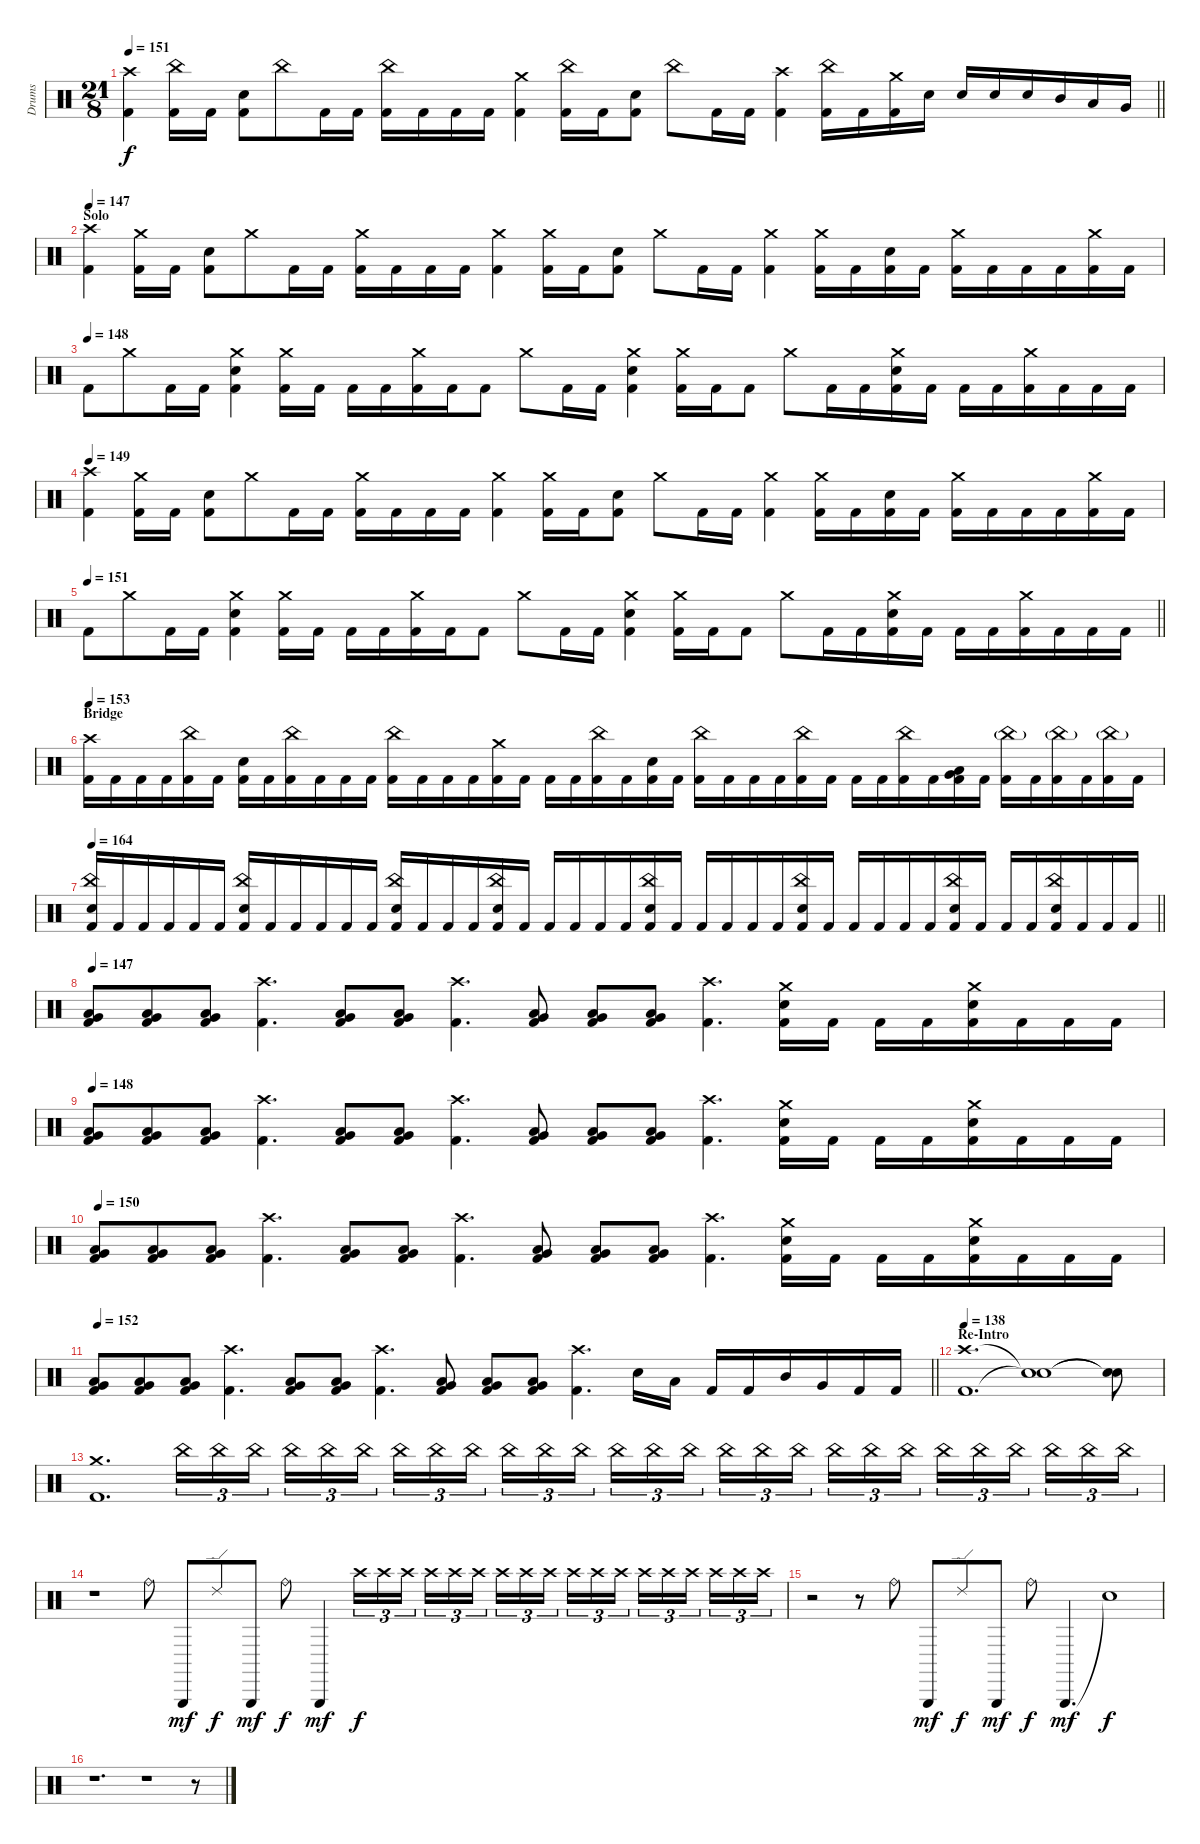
\track ("Drums" "Drums") {instrument percussion}
\staff {score}
\articulation defaults
\ts (21 8)
\tempo 151
\clef neutral
\barLineRight lightlight
\ks c
("Crash high (hit)" "Kick (hit) 2").4{dy f} ("China (hit)" "Kick (hit) 2").16 "Kick (hit) 2".16 ("Snare (hit) 2" "Kick (hit) 2").8 "China (hit)".8 "Kick (hit) 2".16 "Kick (hit) 2".16 ("China (hit)" "Kick (hit) 2").16 "Kick (hit) 2".16 "Kick (hit) 2".16 "Kick (hit) 2".16 ("Crash medium (hit)" "Kick (hit) 2").4 ("China (hit)" "Kick (hit) 2").16 "Kick (hit) 2".16 ("Snare (hit) 2" "Kick (hit) 2").8 "China (hit)".8 "Kick (hit) 2".16 "Kick (hit) 2".16 ("Crash high (hit)" "Kick (hit) 2").4 ("China (hit)" "Kick (hit) 2").16 "Kick (hit) 2".16 ("Crash medium (hit)" "Kick (hit) 2").16 "Snare (hit) 2".16 "Snare (hit) 2".16 "Snare (hit) 2".16 "Snare (hit) 2".16 "Mid Tom (hit)".16 "Low Tom (hit)".16 "Very Low Tom (hit)".16 |
\section ("" "Solo")
\tempo 147
("Crash high (hit)" "Kick (hit) 2").4 ("Crash medium (hit)" "Kick (hit) 2").16 "Kick (hit) 2".16 ("Snare (hit) 2" "Kick (hit) 2").8 "Crash medium (hit)".8 "Kick (hit) 2".16 "Kick (hit) 2".16 ("Crash medium (hit)" "Kick (hit) 2").16 "Kick (hit) 2".16 "Kick (hit) 2".16 "Kick (hit) 2".16 ("Crash medium (hit)" "Kick (hit) 2").4 ("Crash medium (hit)" "Kick (hit) 2").16 "Kick (hit) 2".16 ("Snare (hit) 2" "Kick (hit) 2").8 "Crash medium (hit)".8 "Kick (hit) 2".16 "Kick (hit) 2".16 ("Crash medium (hit)" "Kick (hit) 2").4 ("Crash medium (hit)" "Kick (hit) 2").16 "Kick (hit) 2".16 ("Snare (hit) 2" "Kick (hit) 2").16 "Kick (hit) 2".16 ("Crash medium (hit)" "Kick (hit) 2").16 "Kick (hit) 2".16 "Kick (hit) 2".16 "Kick (hit) 2".16 ("Crash medium (hit)" "Kick (hit) 2").16 "Kick (hit) 2".16 |
\tempo (148)
"Kick (hit) 2".8 "Crash medium (hit)".8 "Kick (hit) 2".16 "Kick (hit) 2".16 ("Crash medium (hit)" "Snare (hit) 2" "Kick (hit) 2").4 ("Crash medium (hit)" "Kick (hit) 2").16 "Kick (hit) 2".16 "Kick (hit) 2".16 "Kick (hit) 2".16 ("Crash medium (hit)" "Kick (hit) 2").16 "Kick (hit) 2".16 "Kick (hit) 2".8 "Crash medium (hit)".8 "Kick (hit) 2".16 "Kick (hit) 2".16 ("Crash medium (hit)" "Snare (hit) 2" "Kick (hit) 2").4 ("Crash medium (hit)" "Kick (hit) 2").16 "Kick (hit) 2".16 "Kick (hit) 2".8 "Crash medium (hit)".8 "Kick (hit) 2".16 "Kick (hit) 2".16 ("Crash medium (hit)" "Snare (hit) 2" "Kick (hit) 2").16 "Kick (hit) 2".16 "Kick (hit) 2".16 "Kick (hit) 2".16 ("Crash medium (hit)" "Kick (hit) 2").16 "Kick (hit) 2".16 "Kick (hit) 2".16 "Kick (hit) 2".16 |
\tempo 149
("Crash high (hit)" "Kick (hit) 2").4 ("Crash medium (hit)" "Kick (hit) 2").16 "Kick (hit) 2".16 ("Snare (hit) 2" "Kick (hit) 2").8 "Crash medium (hit)".8 "Kick (hit) 2".16 "Kick (hit) 2".16 ("Crash medium (hit)" "Kick (hit) 2").16 "Kick (hit) 2".16 "Kick (hit) 2".16 "Kick (hit) 2".16 ("Crash medium (hit)" "Kick (hit) 2").4 ("Crash medium (hit)" "Kick (hit) 2").16 "Kick (hit) 2".16 ("Snare (hit) 2" "Kick (hit) 2").8 "Crash medium (hit)".8 "Kick (hit) 2".16 "Kick (hit) 2".16 ("Crash medium (hit)" "Kick (hit) 2").4 ("Crash medium (hit)" "Kick (hit) 2").16 "Kick (hit) 2".16 ("Snare (hit) 2" "Kick (hit) 2").16 "Kick (hit) 2".16 ("Crash medium (hit)" "Kick (hit) 2").16 "Kick (hit) 2".16 "Kick (hit) 2".16 "Kick (hit) 2".16 ("Crash medium (hit)" "Kick (hit) 2").16 "Kick (hit) 2".16 |
\tempo 151
\barLineRight lightlight "Kick (hit) 2".8 "Crash medium (hit)".8 "Kick (hit) 2".16 "Kick (hit) 2".16
("Crash medium (hit)" "Snare (hit) 2" "Kick (hit) 2").4 ("Crash medium (hit)" "Kick (hit) 2").16 "Kick (hit) 2".16 "Kick (hit) 2".16 "Kick (hit) 2".16 ("Crash medium (hit)" "Kick (hit) 2").16 "Kick (hit) 2".16 "Kick (hit) 2".8 "Crash medium (hit)".8 "Kick (hit) 2".16 "Kick (hit) 2".16 ("Crash medium (hit)" "Snare (hit) 2" "Kick (hit) 2").4 ("Crash medium (hit)" "Kick (hit) 2").16 "Kick (hit) 2".16 "Kick (hit) 2".8 "Crash medium (hit)".8 "Kick (hit) 2".16 "Kick (hit) 2".16 ("Crash medium (hit)" "Snare (hit) 2" "Kick (hit) 2").16 "Kick (hit) 2".16 "Kick (hit) 2".16 "Kick (hit) 2".16 ("Crash medium (hit)" "Kick (hit) 2").16 "Kick (hit) 2".16 "Kick (hit) 2".16 "Kick (hit) 2".16 |
\section ("" "Bridge")
\tempo 153
("Crash high (hit)" "Kick (hit) 2").16 "Kick (hit) 2".16 "Kick (hit) 2".16 "Kick (hit) 2".16 ("China (hit)" "Kick (hit) 2").16 "Kick (hit) 2".16 ("Snare (hit) 2" "Kick (hit) 2").16 "Kick (hit) 2".16 ("China (hit)" "Kick (hit) 2").16 "Kick (hit) 2".16 "Kick (hit) 2".16 "Kick (hit) 2".16 ("China (hit)" "Kick (hit) 2").16 "Kick (hit) 2".16 "Kick (hit) 2".16 "Kick (hit) 2".16 ("Crash medium (hit)" "Kick (hit) 2").16 "Kick (hit) 2".16 "Kick (hit) 2".16 "Kick (hit) 2".16 ("China (hit)" "Kick (hit) 2").16 "Kick (hit) 2".16 ("Snare (hit) 2" "Kick (hit) 2").16 "Kick (hit) 2".16 ("China (hit)" "Kick (hit) 2").16 "Kick (hit) 2".16 "Kick (hit) 2".16 "Kick (hit) 2".16 ("China (hit)" "Kick (hit) 2").16 "Kick (hit) 2".16 "Kick (hit) 2".16 "Kick (hit) 2".16 ("China (hit)" "Kick (hit) 2").16 "Kick (hit) 2".16 ("Low Tom (hit)" "Very Low Tom (hit)" "Kick (hit) 2").16 "Kick (hit) 2".16 ("China (hit)"{g} "Kick (hit) 2").16 "Kick (hit) 2".16 ("China (hit)"{g} "Kick (hit) 2").16 "Kick (hit) 2".16 ("China (hit)"{g} "Kick (hit) 2").16 "Kick (hit) 2".16 |
\tempo 164
\barLineRight lightlight
("China (hit)" "Snare (hit) 2" "Kick (hit) 2").16 "Kick (hit) 2".16 "Kick (hit) 2".16 "Kick (hit) 2".16 "Kick (hit) 2".16 "Kick (hit) 2".16 ("China (hit)" "Snare (hit) 2" "Kick (hit) 2").16 "Kick (hit) 2".16 "Kick (hit) 2".16 "Kick (hit) 2".16 "Kick (hit) 2".16 "Kick (hit) 2".16 ("China (hit)" "Snare (hit) 2" "Kick (hit) 2").16 "Kick (hit) 2".16 "Kick (hit) 2".16 "Kick (hit) 2".16 ("China (hit)" "Snare (hit) 2" "Kick (hit) 2").16 "Kick (hit) 2".16 "Kick (hit) 2".16 "Kick (hit) 2".16 "Kick (hit) 2".16 "Kick (hit) 2".16 ("China (hit)" "Snare (hit) 2" "Kick (hit) 2").16 "Kick (hit) 2".16 "Kick (hit) 2".16 "Kick (hit) 2".16 "Kick (hit) 2".16 "Kick (hit) 2".16 ("China (hit)" "Snare (hit) 2" "Kick (hit) 2").16 "Kick (hit) 2".16 "Kick (hit) 2".16 "Kick (hit) 2".16 "Kick (hit) 2".16 "Kick (hit) 2".16 ("China (hit)" "Snare (hit) 2" "Kick (hit) 2").16 "Kick (hit) 2".16 "Kick (hit) 2".16 "Kick (hit) 2".16 ("China (hit)" "Snare (hit) 2" "Kick (hit) 2").16 "Kick (hit) 2".16 "Kick (hit) 2".16 "Kick (hit) 2".16 |
\section ("" "")
\tempo 147
("Very Low Tom (hit)" "Low Floor Tom (hit)" "Kick (hit) 2").8 ("Very Low Tom (hit)" "Low Floor Tom (hit)" "Kick (hit) 2").8 ("Very Low Tom (hit)" "Low Floor Tom (hit)" "Kick (hit) 2").8 ("Crash high (hit)" "Kick (hit) 2").4{d} ("Very Low Tom (hit)" "Low Floor Tom (hit)" "Kick (hit) 2").8 ("Very Low Tom (hit)" "Low Floor Tom (hit)" "Kick (hit) 2").8 ("Crash high (hit)" "Kick (hit) 2").4{d} ("Very Low Tom (hit)" "Low Floor Tom (hit)" "Kick (hit) 2").8 ("Very Low Tom (hit)" "Low Floor Tom (hit)" "Kick (hit) 2").8 ("Very Low Tom (hit)" "Low Floor Tom (hit)" "Kick (hit) 2").8 ("Crash high (hit)" "Kick (hit) 2").4{d} ("Crash medium (hit)" "Snare (hit) 2" "Kick (hit) 2").16 "Kick (hit) 2".16 "Kick (hit) 2".16 "Kick (hit) 2".16 ("Crash medium (hit)" "Snare (hit) 2" "Kick (hit) 2").16 "Kick (hit) 2".16 "Kick (hit) 2".16 "Kick (hit) 2".16 |
\tempo 148
("Very Low Tom (hit)" "Low Floor Tom (hit)" "Kick (hit) 2").8 ("Very Low Tom (hit)" "Low Floor Tom (hit)" "Kick (hit) 2").8 ("Very Low Tom (hit)" "Low Floor Tom (hit)" "Kick (hit) 2").8 ("Crash high (hit)" "Kick (hit) 2").4{d} ("Very Low Tom (hit)" "Low Floor Tom (hit)" "Kick (hit) 2").8 ("Very Low Tom (hit)" "Low Floor Tom (hit)" "Kick (hit) 2").8 ("Crash high (hit)" "Kick (hit) 2").4{d} ("Very Low Tom (hit)" "Low Floor Tom (hit)" "Kick (hit) 2").8 ("Very Low Tom (hit)" "Low Floor Tom (hit)" "Kick (hit) 2").8 ("Very Low Tom (hit)" "Low Floor Tom (hit)" "Kick (hit) 2").8 ("Crash high (hit)" "Kick (hit) 2").4{d} ("Crash medium (hit)" "Snare (hit) 2" "Kick (hit) 2").16 "Kick (hit) 2".16 "Kick (hit) 2".16 "Kick (hit) 2".16 ("Crash medium (hit)" "Snare (hit) 2" "Kick (hit) 2").16 "Kick (hit) 2".16 "Kick (hit) 2".16 "Kick (hit) 2".16 |
\tempo 150
("Very Low Tom (hit)" "Low Floor Tom (hit)" "Kick (hit) 2").8 ("Very Low Tom (hit)" "Low Floor Tom (hit)" "Kick (hit) 2").8 ("Very Low Tom (hit)" "Low Floor Tom (hit)" "Kick (hit) 2").8 ("Crash high (hit)" "Kick (hit) 2").4{d} ("Very Low Tom (hit)" "Low Floor Tom (hit)" "Kick (hit) 2").8 ("Very Low Tom (hit)" "Low Floor Tom (hit)" "Kick (hit) 2").8 ("Crash high (hit)" "Kick (hit) 2").4{d} ("Very Low Tom (hit)" "Low Floor Tom (hit)" "Kick (hit) 2").8 ("Very Low Tom (hit)" "Low Floor Tom (hit)" "Kick (hit) 2").8 ("Very Low Tom (hit)" "Low Floor Tom (hit)" "Kick (hit) 2").8 ("Crash high (hit)" "Kick (hit) 2").4{d} ("Crash medium (hit)" "Snare (hit) 2" "Kick (hit) 2").16 "Kick (hit) 2".16 "Kick (hit) 2".16 "Kick (hit) 2".16 ("Crash medium (hit)" "Snare (hit) 2" "Kick (hit) 2").16 "Kick (hit) 2".16 "Kick (hit) 2".16 "Kick (hit) 2".16 |
\tempo 152
\barLineRight lightlight
("Very Low Tom (hit)" "Low Floor Tom (hit)" "Kick (hit) 2").8 ("Very Low Tom (hit)" "Low Floor Tom (hit)" "Kick (hit) 2").8 ("Very Low Tom (hit)" "Low Floor Tom (hit)" "Kick (hit) 2").8 ("Crash high (hit)" "Kick (hit) 2").4{d} ("Very Low Tom (hit)" "Low Floor Tom (hit)" "Kick (hit) 2").8 ("Very Low Tom (hit)" "Low Floor Tom (hit)" "Kick (hit) 2").8 ("Crash high (hit)" "Kick (hit) 2").4{d} ("Very Low Tom (hit)" "Low Floor Tom (hit)" "Kick (hit) 2").8 ("Very Low Tom (hit)" "Low Floor Tom (hit)" "Kick (hit) 2").8 ("Very Low Tom (hit)" "Low Floor Tom (hit)" "Kick (hit) 2").8 ("Crash high (hit)" "Kick (hit) 2").4{d} "Snare (hit) 2".16 "Low Tom (hit)".16 "Kick (hit) 2".16 "Kick (hit) 2".16 "Mid Tom (hit)".16 "Very Low Tom (hit)".16 "Kick (hit) 2".16 "Kick (hit) 2".16 |
\section ("" "Re-Intro")
\tempo 138
("Crash high (hit)" "Kick (hit) 2").1{d} ("Snare (hit)"{t} "Snare (hit)"{t}).1 ("Snare (hit)"{t} "Snare (hit)"{t}).8 |
("Crash medium (hit)" "Kick (hit) 2").1{d} "China (hit)".16{tu (3 2) volume 0} "China (hit)".16{tu (3 2) volume 14} "China (hit)".16{tu (3 2) beam splitsecondary} "China (hit)".16{tu (3 2)} "China (hit)".16{tu (3 2)} "China (hit)".16{tu (3 2) beam splitsecondary} "China (hit)".16{tu (3 2)} "China (hit)".16{tu (3 2)} "China (hit)".16{tu (3 2)} "China (hit)".16{tu (3 2)} "China (hit)".16{tu (3 2)} "China (hit)".16{tu (3 2) beam splitsecondary} "China (hit)".16{tu (3 2)} "China (hit)".16{tu (3 2)} "China (hit)".16{tu (3 2) beam splitsecondary} "China (hit)".16{tu (3 2)} "China (hit)".16{tu (3 2)} "China (hit)".16{tu (3 2)} "China (hit)".16{tu (3 2)} "China (hit)".16{tu (3 2)} "China (hit)".16{tu (3 2) beam splitsecondary} "China (hit)".16{tu (3 2)} "China (hit)".16{tu (3 2)} "China (hit)".16{tu (3 2) beam splitsecondary} "China (hit)".16{tu (3 2)} "China (hit)".16{tu (3 2)} "China (hit)".16{tu (3 2)} |
r.1 "Ride (bell)".8 "Triangle (hit)".8{dy mf} "Ride (edge) 2".8{dy f} "Triangle (hit)".8{dy mf} "Ride (bell)".8{dy f} "Triangle (hit)".4{dy mf} "Crash high (hit)".16{tu (3 2) dy f volume 0} "Crash high (hit)".16{tu (3 2) volume 14} "Crash high (hit)".16{tu (3 2) beam splitsecondary} "Crash high (hit)".16{tu (3 2)} "Crash high (hit)".16{tu (3 2)} "Crash high (hit)".16{tu (3 2) beam splitsecondary} "Crash high (hit)".16{tu (3 2)} "Crash high (hit)".16{tu (3 2)} "Crash high (hit)".16{tu (3 2)} "Crash high (hit)".16{tu (3 2)} "Crash high (hit)".16{tu (3 2)} "Crash high (hit)".16{tu (3 2) beam splitsecondary} "Crash high (hit)".16{tu (3 2)} "Crash high (hit)".16{tu (3 2)} "Crash high (hit)".16{tu (3 2) beam splitsecondary} "Crash high (hit)".16{tu (3 2)} "Crash high (hit)".16{tu (3 2)} "Crash high (hit)".16{tu (3 2)} |
r.2 r.8 "Ride (bell)".8 "Triangle (hit)".8{dy mf} "Ride (edge) 2".8{dy f} "Triangle (hit)".8{dy mf} "Ride (bell)".8{dy f} "Triangle (hit)".4{d dy mf} "Snare (hit)"{t}.1{dy f} |
r.1{d} r.1 r.8
